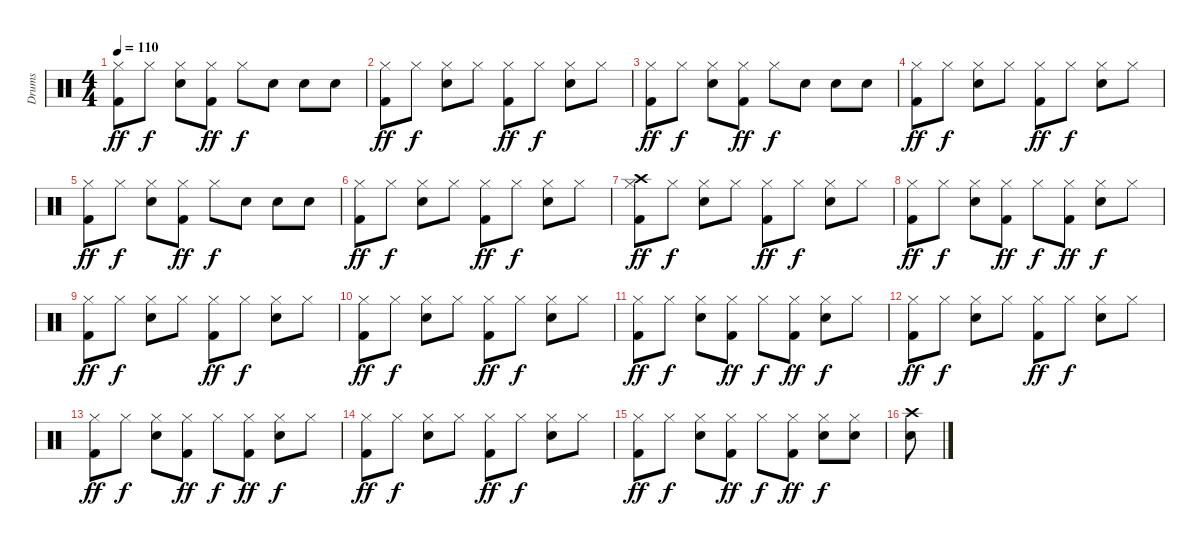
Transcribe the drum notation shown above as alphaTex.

\track ("Drums" "Drums") {instrument percussion}
\staff {score}
\articulation defaults
\ts (4 4)
\tempo 110
\clef neutral
\ks c
("Hi-Hat (closed)" "Kick (hit) 2").8{dy ff} "Hi-Hat (closed)".8{dy f} ("Hi-Hat (closed)" "Electric Snare (hit)").8 ("Hi-Hat (closed)" "Kick (hit) 2").8{dy ff} "Hi-Hat (closed)".8{dy f} "Electric Snare (hit)".8 "Electric Snare (hit)".8 "Electric Snare (hit)".8 |
("Hi-Hat (closed)" "Kick (hit) 2").8{dy ff} "Hi-Hat (closed)".8{dy f} ("Hi-Hat (closed)" "Electric Snare (hit)").8 "Hi-Hat (closed)".8 ("Hi-Hat (closed)" "Kick (hit) 2").8{dy ff} "Hi-Hat (closed)".8{dy f} ("Hi-Hat (closed)" "Electric Snare (hit)").8 "Hi-Hat (closed)".8 |
("Hi-Hat (closed)" "Kick (hit) 2").8{dy ff} "Hi-Hat (closed)".8{dy f} ("Hi-Hat (closed)" "Electric Snare (hit)").8 ("Hi-Hat (closed)" "Kick (hit) 2").8{dy ff} "Hi-Hat (closed)".8{dy f} "Electric Snare (hit)".8 "Electric Snare (hit)".8 "Electric Snare (hit)".8 |
("Hi-Hat (closed)" "Kick (hit) 2").8{dy ff} "Hi-Hat (closed)".8{dy f} ("Hi-Hat (closed)" "Electric Snare (hit)").8 "Hi-Hat (closed)".8 ("Hi-Hat (closed)" "Kick (hit) 2").8{dy ff} "Hi-Hat (closed)".8{dy f} ("Hi-Hat (closed)" "Electric Snare (hit)").8 "Hi-Hat (closed)".8 |
("Hi-Hat (closed)" "Kick (hit) 2").8{dy ff} "Hi-Hat (closed)".8{dy f} ("Hi-Hat (closed)" "Electric Snare (hit)").8 ("Hi-Hat (closed)" "Kick (hit) 2").8{dy ff} "Hi-Hat (closed)".8{dy f} "Electric Snare (hit)".8 "Electric Snare (hit)".8 "Electric Snare (hit)".8 |
("Hi-Hat (closed)" "Kick (hit) 2").8{dy ff} "Hi-Hat (closed)".8{dy f} ("Hi-Hat (closed)" "Electric Snare (hit)").8 "Hi-Hat (closed)".8 ("Hi-Hat (closed)" "Kick (hit) 2").8{dy ff} "Hi-Hat (closed)".8{dy f} ("Hi-Hat (closed)" "Electric Snare (hit)").8 "Hi-Hat (closed)".8 |
("Hi-Hat (closed)" "Crash high (hit)" "Kick (hit) 2").8{dy ff} "Hi-Hat (closed)".8{dy f} ("Hi-Hat (closed)" "Electric Snare (hit)").8 "Hi-Hat (closed)".8 ("Hi-Hat (closed)" "Kick (hit) 2").8{dy ff} "Hi-Hat (closed)".8{dy f} ("Hi-Hat (closed)" "Electric Snare (hit)").8 "Hi-Hat (closed)".8 |
("Hi-Hat (closed)" "Kick (hit) 2").8{dy ff} "Hi-Hat (closed)".8{dy f} ("Hi-Hat (closed)" "Electric Snare (hit)").8 ("Hi-Hat (closed)" "Kick (hit) 2").8{dy ff} "Hi-Hat (closed)".8{dy f} ("Hi-Hat (closed)" "Kick (hit) 2").8{dy ff} ("Hi-Hat (closed)" "Electric Snare (hit)").8{dy f} "Hi-Hat (closed)".8 |
("Hi-Hat (closed)" "Kick (hit) 2").8{dy ff} "Hi-Hat (closed)".8{dy f} ("Hi-Hat (closed)" "Electric Snare (hit)").8 "Hi-Hat (closed)".8 ("Hi-Hat (closed)" "Kick (hit) 2").8{dy ff} "Hi-Hat (closed)".8{dy f} ("Hi-Hat (closed)" "Electric Snare (hit)").8 "Hi-Hat (closed)".8 |
("Hi-Hat (closed)" "Kick (hit) 2").8{dy ff} "Hi-Hat (closed)".8{dy f} ("Hi-Hat (closed)" "Electric Snare (hit)").8 "Hi-Hat (closed)".8 ("Hi-Hat (closed)" "Kick (hit) 2").8{dy ff} "Hi-Hat (closed)".8{dy f} ("Hi-Hat (closed)" "Electric Snare (hit)").8 "Hi-Hat (closed)".8 |
("Hi-Hat (closed)" "Kick (hit) 2").8{dy ff} "Hi-Hat (closed)".8{dy f} ("Hi-Hat (closed)" "Electric Snare (hit)").8 ("Hi-Hat (closed)" "Kick (hit) 2").8{dy ff} "Hi-Hat (closed)".8{dy f} ("Hi-Hat (closed)" "Kick (hit) 2").8{dy ff} ("Hi-Hat (closed)" "Electric Snare (hit)").8{dy f} "Hi-Hat (closed)".8 |
("Hi-Hat (closed)" "Kick (hit) 2").8{dy ff} "Hi-Hat (closed)".8{dy f} ("Hi-Hat (closed)" "Electric Snare (hit)").8 "Hi-Hat (closed)".8 ("Hi-Hat (closed)" "Kick (hit) 2").8{dy ff} "Hi-Hat (closed)".8{dy f} ("Hi-Hat (closed)" "Electric Snare (hit)").8 "Hi-Hat (closed)".8 |
("Hi-Hat (closed)" "Kick (hit) 2").8{dy ff} "Hi-Hat (closed)".8{dy f} ("Hi-Hat (closed)" "Electric Snare (hit)").8 ("Hi-Hat (closed)" "Kick (hit) 2").8{dy ff} "Hi-Hat (closed)".8{dy f} ("Hi-Hat (closed)" "Kick (hit) 2").8{dy ff} ("Hi-Hat (closed)" "Electric Snare (hit)").8{dy f} "Hi-Hat (closed)".8 |
("Hi-Hat (closed)" "Kick (hit) 2").8{dy ff} "Hi-Hat (closed)".8{dy f} ("Hi-Hat (closed)" "Electric Snare (hit)").8 "Hi-Hat (closed)".8 ("Hi-Hat (closed)" "Kick (hit) 2").8{dy ff} "Hi-Hat (closed)".8{dy f} ("Hi-Hat (closed)" "Electric Snare (hit)").8 "Hi-Hat (closed)".8 |
("Hi-Hat (closed)" "Kick (hit) 2").8{dy ff} "Hi-Hat (closed)".8{dy f} ("Hi-Hat (closed)" "Electric Snare (hit)").8 ("Hi-Hat (closed)" "Kick (hit) 2").8{dy ff} "Hi-Hat (closed)".8{dy f} ("Hi-Hat (closed)" "Kick (hit) 2").8{dy ff} ("Hi-Hat (closed)" "Electric Snare (hit)").8{dy f} ("Hi-Hat (closed)" "Electric Snare (hit)").8 |
("Crash high (hit)" "Electric Snare (hit)").8
